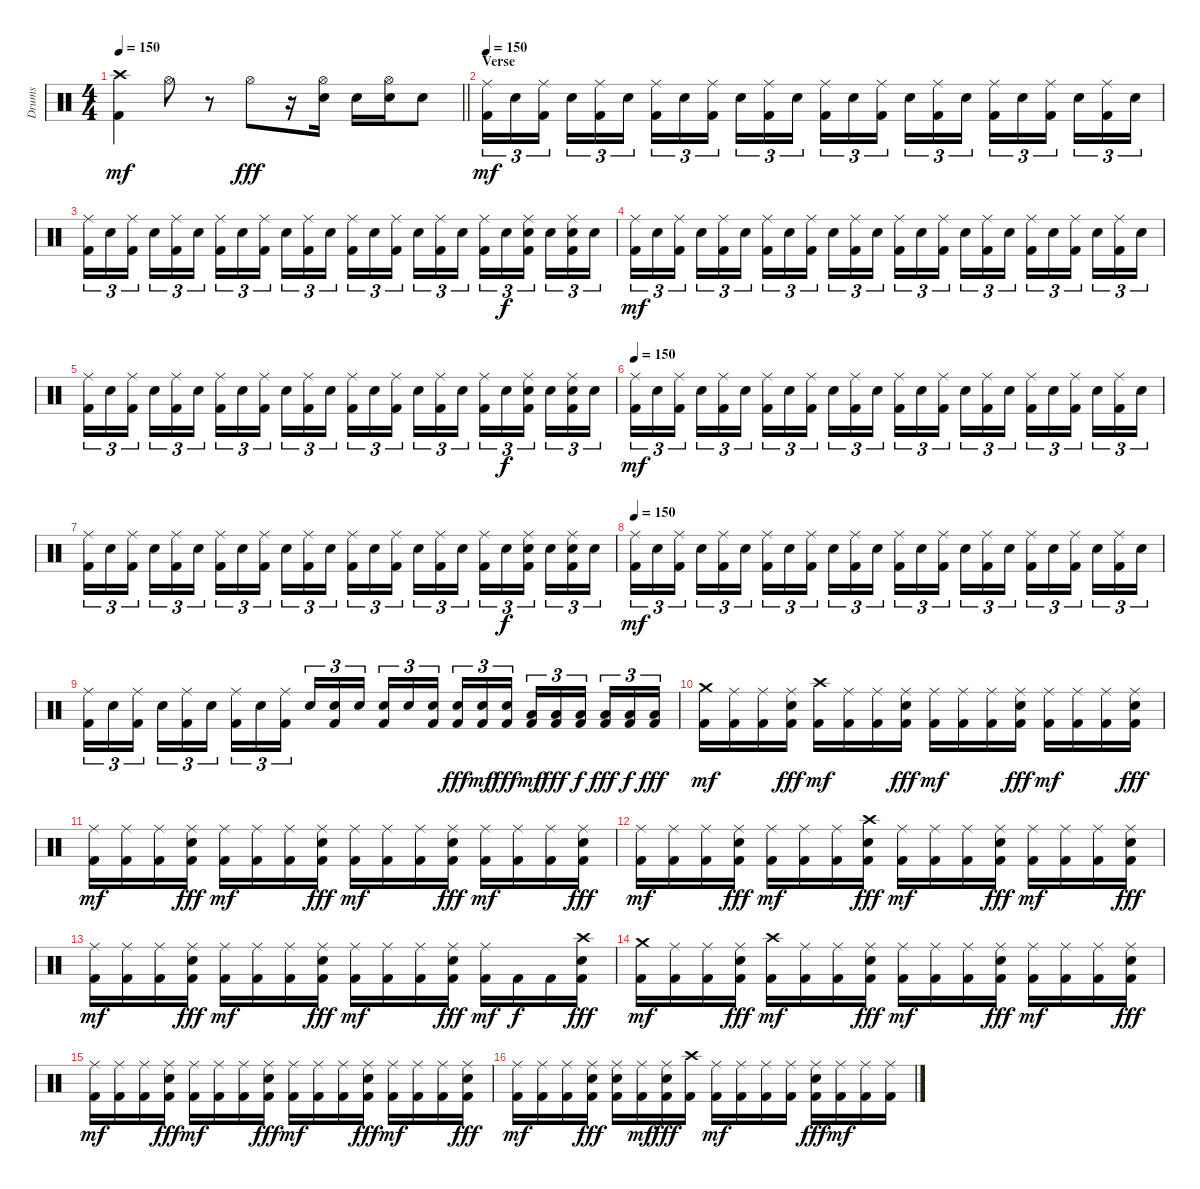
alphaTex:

\track ("Drums" "Drums") {instrument percussion}
\staff {score}
\articulation defaults
\ts (4 4)
\tempo 150
\clef neutral
\barLineRight lightlight
\ks c
("Crash high (hit)" "Kick (hit) 2").4{dy mf} "Hi-Hat (open)".8 r.8 "Hi-Hat (open)".8{dy fff} r.16 ("Hi-Hat (open)" "Snare (hit) 2").16 "Snare (hit) 2".16 ("Hi-Hat (open)" "Snare (hit) 2").16 "Electric Snare (hit)".8 |
\section ("" "Verse")
\tempo 150
("Ride (middle)" "Kick (hit) 2").16{tu (3 2) dy mf} "Snare (hit) 2".16{tu (3 2)} ("Ride (middle)" "Kick (hit) 2").16{tu (3 2) beam splitsecondary} "Snare (hit) 2".16{tu (3 2)} ("Ride (middle)" "Kick (hit) 2").16{tu (3 2)} "Snare (hit) 2".16{tu (3 2)} ("Ride (middle)" "Kick (hit) 2").16{tu (3 2)} "Snare (hit) 2".16{tu (3 2)} ("Ride (middle)" "Kick (hit) 2").16{tu (3 2) beam splitsecondary} "Snare (hit) 2".16{tu (3 2)} ("Ride (middle)" "Kick (hit) 2").16{tu (3 2)} "Snare (hit) 2".16{tu (3 2)} ("Ride (middle)" "Kick (hit) 2").16{tu (3 2)} "Snare (hit) 2".16{tu (3 2)} ("Ride (middle)" "Kick (hit) 2").16{tu (3 2) beam splitsecondary} "Snare (hit) 2".16{tu (3 2)} ("Ride (middle)" "Kick (hit) 2").16{tu (3 2)} "Snare (hit) 2".16{tu (3 2)} ("Ride (middle)" "Kick (hit) 2").16{tu (3 2)} "Snare (hit) 2".16{tu (3 2)} ("Ride (middle)" "Kick (hit) 2").16{tu (3 2) beam splitsecondary} "Snare (hit) 2".16{tu (3 2)} ("Ride (middle)" "Kick (hit) 2").16{tu (3 2)} "Snare (hit) 2".16{tu (3 2)} |
("Ride (middle)" "Kick (hit) 2").16{tu (3 2)} "Snare (hit) 2".16{tu (3 2)} ("Ride (middle)" "Kick (hit) 2").16{tu (3 2) beam splitsecondary} "Snare (hit) 2".16{tu (3 2)} ("Ride (middle)" "Kick (hit) 2").16{tu (3 2)} "Snare (hit) 2".16{tu (3 2)} ("Ride (middle)" "Kick (hit) 2").16{tu (3 2)} "Snare (hit) 2".16{tu (3 2)} ("Ride (middle)" "Kick (hit) 2").16{tu (3 2) beam splitsecondary} "Snare (hit) 2".16{tu (3 2)} ("Ride (middle)" "Kick (hit) 2").16{tu (3 2)} "Snare (hit) 2".16{tu (3 2)} ("Ride (middle)" "Kick (hit) 2").16{tu (3 2)} "Snare (hit) 2".16{tu (3 2)} ("Ride (middle)" "Kick (hit) 2").16{tu (3 2) beam splitsecondary} "Snare (hit) 2".16{tu (3 2)} ("Ride (middle)" "Kick (hit) 2").16{tu (3 2)} "Snare (hit) 2".16{tu (3 2)} ("Ride (middle)" "Kick (hit) 2").16{tu (3 2)} "Electric Snare (hit)".16{tu (3 2) dy f} ("Ride (middle)" "Electric Snare (hit)" "Kick (hit) 2").16{tu (3 2) beam splitsecondary} "Electric Snare (hit)".16{tu (3 2)} ("Ride (middle)" "Electric Snare (hit)" "Kick (hit) 2").16{tu (3 2)} "Electric Snare (hit)".16{tu (3 2)} |
("Ride (middle)" "Kick (hit) 2").16{tu (3 2) dy mf} "Snare (hit) 2".16{tu (3 2)} ("Ride (middle)" "Kick (hit) 2").16{tu (3 2) beam splitsecondary} "Snare (hit) 2".16{tu (3 2)} ("Ride (middle)" "Kick (hit) 2").16{tu (3 2)} "Snare (hit) 2".16{tu (3 2)} ("Ride (middle)" "Kick (hit) 2").16{tu (3 2)} "Snare (hit) 2".16{tu (3 2)} ("Ride (middle)" "Kick (hit) 2").16{tu (3 2) beam splitsecondary} "Snare (hit) 2".16{tu (3 2)} ("Ride (middle)" "Kick (hit) 2").16{tu (3 2)} "Snare (hit) 2".16{tu (3 2)} ("Ride (middle)" "Kick (hit) 2").16{tu (3 2)} "Snare (hit) 2".16{tu (3 2)} ("Ride (middle)" "Kick (hit) 2").16{tu (3 2) beam splitsecondary} "Snare (hit) 2".16{tu (3 2)} ("Ride (middle)" "Kick (hit) 2").16{tu (3 2)} "Snare (hit) 2".16{tu (3 2)} ("Ride (middle)" "Kick (hit) 2").16{tu (3 2)} "Snare (hit) 2".16{tu (3 2)} ("Ride (middle)" "Kick (hit) 2").16{tu (3 2) beam splitsecondary} "Snare (hit) 2".16{tu (3 2)} ("Ride (middle)" "Kick (hit) 2").16{tu (3 2)} "Snare (hit) 2".16{tu (3 2)} |
("Ride (middle)" "Kick (hit) 2").16{tu (3 2)} "Snare (hit) 2".16{tu (3 2)} ("Ride (middle)" "Kick (hit) 2").16{tu (3 2) beam splitsecondary} "Snare (hit) 2".16{tu (3 2)} ("Ride (middle)" "Kick (hit) 2").16{tu (3 2)} "Snare (hit) 2".16{tu (3 2)} ("Ride (middle)" "Kick (hit) 2").16{tu (3 2)} "Snare (hit) 2".16{tu (3 2)} ("Ride (middle)" "Kick (hit) 2").16{tu (3 2) beam splitsecondary} "Snare (hit) 2".16{tu (3 2)} ("Ride (middle)" "Kick (hit) 2").16{tu (3 2)} "Snare (hit) 2".16{tu (3 2)} ("Ride (middle)" "Kick (hit) 2").16{tu (3 2)} "Snare (hit) 2".16{tu (3 2)} ("Ride (middle)" "Kick (hit) 2").16{tu (3 2) beam splitsecondary} "Snare (hit) 2".16{tu (3 2)} ("Ride (middle)" "Kick (hit) 2").16{tu (3 2)} "Snare (hit) 2".16{tu (3 2)} ("Ride (middle)" "Kick (hit) 2").16{tu (3 2)} "Electric Snare (hit)".16{tu (3 2) dy f} ("Ride (middle)" "Electric Snare (hit)" "Kick (hit) 2").16{tu (3 2) beam splitsecondary} "Electric Snare (hit)".16{tu (3 2)} ("Ride (middle)" "Electric Snare (hit)" "Kick (hit) 2").16{tu (3 2)} "Electric Snare (hit)".16{tu (3 2)} |
\tempo 150
("Ride (middle)" "Kick (hit) 2").16{tu (3 2) dy mf} "Snare (hit) 2".16{tu (3 2)} ("Ride (middle)" "Kick (hit) 2").16{tu (3 2) beam splitsecondary} "Snare (hit) 2".16{tu (3 2)} ("Ride (middle)" "Kick (hit) 2").16{tu (3 2)} "Snare (hit) 2".16{tu (3 2)} ("Ride (middle)" "Kick (hit) 2").16{tu (3 2)} "Snare (hit) 2".16{tu (3 2)} ("Ride (middle)" "Kick (hit) 2").16{tu (3 2) beam splitsecondary} "Snare (hit) 2".16{tu (3 2)} ("Ride (middle)" "Kick (hit) 2").16{tu (3 2)} "Snare (hit) 2".16{tu (3 2)} ("Ride (middle)" "Kick (hit) 2").16{tu (3 2)} "Snare (hit) 2".16{tu (3 2)} ("Ride (middle)" "Kick (hit) 2").16{tu (3 2) beam splitsecondary} "Snare (hit) 2".16{tu (3 2)} ("Ride (middle)" "Kick (hit) 2").16{tu (3 2)} "Snare (hit) 2".16{tu (3 2)} ("Ride (middle)" "Kick (hit) 2").16{tu (3 2)} "Snare (hit) 2".16{tu (3 2)} ("Ride (middle)" "Kick (hit) 2").16{tu (3 2) beam splitsecondary} "Snare (hit) 2".16{tu (3 2)} ("Ride (middle)" "Kick (hit) 2").16{tu (3 2)} "Snare (hit) 2".16{tu (3 2)} |
("Ride (middle)" "Kick (hit) 2").16{tu (3 2)} "Snare (hit) 2".16{tu (3 2)} ("Ride (middle)" "Kick (hit) 2").16{tu (3 2) beam splitsecondary} "Snare (hit) 2".16{tu (3 2)} ("Ride (middle)" "Kick (hit) 2").16{tu (3 2)} "Snare (hit) 2".16{tu (3 2)} ("Ride (middle)" "Kick (hit) 2").16{tu (3 2)} "Snare (hit) 2".16{tu (3 2)} ("Ride (middle)" "Kick (hit) 2").16{tu (3 2) beam splitsecondary} "Snare (hit) 2".16{tu (3 2)} ("Ride (middle)" "Kick (hit) 2").16{tu (3 2)} "Snare (hit) 2".16{tu (3 2)} ("Ride (middle)" "Kick (hit) 2").16{tu (3 2)} "Snare (hit) 2".16{tu (3 2)} ("Ride (middle)" "Kick (hit) 2").16{tu (3 2) beam splitsecondary} "Snare (hit) 2".16{tu (3 2)} ("Ride (middle)" "Kick (hit) 2").16{tu (3 2)} "Snare (hit) 2".16{tu (3 2)} ("Ride (middle)" "Kick (hit) 2").16{tu (3 2)} "Electric Snare (hit)".16{tu (3 2) dy f} ("Ride (middle)" "Electric Snare (hit)" "Kick (hit) 2").16{tu (3 2) beam splitsecondary} "Electric Snare (hit)".16{tu (3 2)} ("Ride (middle)" "Electric Snare (hit)" "Kick (hit) 2").16{tu (3 2)} "Electric Snare (hit)".16{tu (3 2)} |
\tempo 150
("Ride (middle)" "Kick (hit) 2").16{tu (3 2) dy mf} "Snare (hit) 2".16{tu (3 2)} ("Ride (middle)" "Kick (hit) 2").16{tu (3 2) beam splitsecondary} "Snare (hit) 2".16{tu (3 2)} ("Ride (middle)" "Kick (hit) 2").16{tu (3 2)} "Snare (hit) 2".16{tu (3 2)} ("Ride (middle)" "Kick (hit) 2").16{tu (3 2)} "Snare (hit) 2".16{tu (3 2)} ("Ride (middle)" "Kick (hit) 2").16{tu (3 2) beam splitsecondary} "Snare (hit) 2".16{tu (3 2)} ("Ride (middle)" "Kick (hit) 2").16{tu (3 2)} "Snare (hit) 2".16{tu (3 2)} ("Ride (middle)" "Kick (hit) 2").16{tu (3 2)} "Snare (hit) 2".16{tu (3 2)} ("Ride (middle)" "Kick (hit) 2").16{tu (3 2) beam splitsecondary} "Snare (hit) 2".16{tu (3 2)} ("Ride (middle)" "Kick (hit) 2").16{tu (3 2)} "Snare (hit) 2".16{tu (3 2)} ("Ride (middle)" "Kick (hit) 2").16{tu (3 2)} "Snare (hit) 2".16{tu (3 2)} ("Ride (middle)" "Kick (hit) 2").16{tu (3 2) beam splitsecondary} "Snare (hit) 2".16{tu (3 2)} ("Ride (middle)" "Kick (hit) 2").16{tu (3 2)} "Snare (hit) 2".16{tu (3 2)} |
("Ride (middle)" "Kick (hit) 2").16{tu (3 2)} "Snare (hit) 2".16{tu (3 2)} ("Ride (middle)" "Kick (hit) 2").16{tu (3 2) beam splitsecondary} "Snare (hit) 2".16{tu (3 2)} ("Ride (middle)" "Kick (hit) 2").16{tu (3 2)} "Snare (hit) 2".16{tu (3 2)} ("Ride (middle)" "Kick (hit) 2").16{tu (3 2)} "Snare (hit) 2".16{tu (3 2)} ("Ride (middle)" "Kick (hit) 2").16{tu (3 2) beam splitsecondary} "Snare (hit) 2".16{tu (3 2)} ("Snare (hit) 2" "Kick (hit) 2").16{tu (3 2)} "Snare (hit) 2".16{tu (3 2)} ("Snare (hit) 2" "Kick (hit) 2").16{tu (3 2)} "Snare (hit) 2".16{tu (3 2)} ("Electric Snare (hit)" "Kick (hit) 2").16{tu (3 2) beam splitsecondary} ("Electric Snare (hit)" "Kick (hit) 2").16{tu (3 2) dy fff} ("Electric Snare (hit)" "Kick (hit) 2").16{tu (3 2) dy mf} ("Electric Snare (hit)" "Kick (hit) 2").16{tu (3 2) dy fff} ("Low Tom (hit)" "Kick (hit) 2").16{tu (3 2) dy mf} ("Low Tom (hit)" "Kick (hit) 2").16{tu (3 2) dy fff} ("Low Tom (hit)" "Kick (hit) 2").16{tu (3 2) dy f beam splitsecondary} ("Low Tom (hit)" "Kick (hit) 2").16{tu (3 2) dy fff} ("Low Tom (hit)" "Kick (hit) 2").16{tu (3 2) dy f} ("Low Tom (hit)" "Kick (hit) 2").16{tu (3 2) dy fff} |
("Crash medium (hit)" "Kick (hit) 2").16{dy mf} ("Ride (middle)" "Kick (hit) 2").16 ("Ride (middle)" "Kick (hit) 2").16 ("Ride (middle)" "Snare (hit) 2" "Kick (hit) 2").16{dy fff} ("Crash high (hit)" "Kick (hit) 2").16{dy mf} ("Ride (middle)" "Kick (hit) 2").16 ("Ride (middle)" "Kick (hit) 2").16 ("Ride (middle)" "Snare (hit) 2" "Kick (hit) 2").16{dy fff} ("Ride (middle)" "Kick (hit) 2").16{dy mf} ("Ride (middle)" "Kick (hit) 2").16 ("Ride (middle)" "Kick (hit) 2").16 ("Ride (middle)" "Snare (hit) 2" "Kick (hit) 2").16{dy fff} ("Ride (middle)" "Kick (hit) 2").16{dy mf} ("Ride (middle)" "Kick (hit) 2").16 ("Ride (middle)" "Kick (hit) 2").16 ("Ride (middle)" "Snare (hit) 2" "Kick (hit) 2").16{dy fff} |
("Ride (middle)" "Kick (hit) 2").16{dy mf} ("Ride (middle)" "Kick (hit) 2").16 ("Ride (middle)" "Kick (hit) 2").16 ("Ride (middle)" "Snare (hit) 2" "Kick (hit) 2").16{dy fff} ("Ride (middle)" "Kick (hit) 2").16{dy mf} ("Ride (middle)" "Kick (hit) 2").16 ("Ride (middle)" "Kick (hit) 2").16 ("Ride (middle)" "Snare (hit) 2" "Kick (hit) 2").16{dy fff} ("Ride (middle)" "Kick (hit) 2").16{dy mf} ("Ride (middle)" "Kick (hit) 2").16 ("Ride (middle)" "Kick (hit) 2").16 ("Ride (middle)" "Snare (hit) 2" "Kick (hit) 2").16{dy fff} ("Ride (middle)" "Kick (hit) 2").16{dy mf} ("Ride (middle)" "Kick (hit) 2").16 ("Ride (middle)" "Kick (hit) 2").16 ("Ride (middle)" "Snare (hit) 2" "Kick (hit) 2").16{dy fff} |
("Ride (middle)" "Kick (hit) 2").16{dy mf} ("Ride (middle)" "Kick (hit) 2").16 ("Ride (middle)" "Kick (hit) 2").16 ("Ride (middle)" "Snare (hit) 2" "Kick (hit) 2").16{dy fff} ("Ride (middle)" "Kick (hit) 2").16{dy mf} ("Ride (middle)" "Kick (hit) 2").16 ("Ride (middle)" "Kick (hit) 2").16 ("Crash high (hit)" "Snare (hit) 2" "Kick (hit) 2").16{dy fff} ("Ride (middle)" "Kick (hit) 2").16{dy mf} ("Ride (middle)" "Kick (hit) 2").16 ("Ride (middle)" "Kick (hit) 2").16 ("Ride (middle)" "Snare (hit) 2" "Kick (hit) 2").16{dy fff} ("Ride (middle)" "Kick (hit) 2").16{dy mf} ("Ride (middle)" "Kick (hit) 2").16 ("Ride (middle)" "Kick (hit) 2").16 ("Ride (middle)" "Snare (hit) 2" "Kick (hit) 2").16{dy fff} |
("Ride (middle)" "Kick (hit) 2").16{dy mf} ("Ride (middle)" "Kick (hit) 2").16 ("Ride (middle)" "Kick (hit) 2").16 ("Ride (middle)" "Snare (hit) 2" "Kick (hit) 2").16{dy fff} ("Ride (middle)" "Kick (hit) 2").16{dy mf} ("Ride (middle)" "Kick (hit) 2").16 ("Ride (middle)" "Kick (hit) 2").16 ("Ride (middle)" "Snare (hit) 2" "Kick (hit) 2").16{dy fff} ("Ride (middle)" "Kick (hit) 2").16{dy mf} ("Ride (middle)" "Kick (hit) 2").16 ("Ride (middle)" "Kick (hit) 2").16 ("Ride (middle)" "Snare (hit) 2" "Kick (hit) 2").16{dy fff} ("Ride (middle)" "Kick (hit) 2").16{dy mf} "Kick (hit) 2".16{dy f} "Kick (hit) 2".16 ("Crash high (hit)" "Snare (hit) 2" "Kick (hit) 2").16{dy fff} |
("Crash medium (hit)" "Kick (hit) 2").16{dy mf} ("Ride (middle)" "Kick (hit) 2").16 ("Ride (middle)" "Kick (hit) 2").16 ("Ride (middle)" "Snare (hit) 2" "Kick (hit) 2").16{dy fff} ("Crash high (hit)" "Kick (hit) 2").16{dy mf} ("Ride (middle)" "Kick (hit) 2").16 ("Ride (middle)" "Kick (hit) 2").16 ("Ride (middle)" "Snare (hit) 2" "Kick (hit) 2").16{dy fff} ("Ride (middle)" "Kick (hit) 2").16{dy mf} ("Ride (middle)" "Kick (hit) 2").16 ("Ride (middle)" "Kick (hit) 2").16 ("Ride (middle)" "Snare (hit) 2" "Kick (hit) 2").16{dy fff} ("Ride (middle)" "Kick (hit) 2").16{dy mf} ("Ride (middle)" "Kick (hit) 2").16 ("Ride (middle)" "Kick (hit) 2").16 ("Ride (middle)" "Snare (hit) 2" "Kick (hit) 2").16{dy fff} |
("Ride (middle)" "Kick (hit) 2").16{dy mf} ("Ride (middle)" "Kick (hit) 2").16 ("Ride (middle)" "Kick (hit) 2").16 ("Ride (middle)" "Snare (hit) 2" "Kick (hit) 2").16{dy fff} ("Ride (middle)" "Kick (hit) 2").16{dy mf} ("Ride (middle)" "Kick (hit) 2").16 ("Ride (middle)" "Kick (hit) 2").16 ("Ride (middle)" "Snare (hit) 2" "Kick (hit) 2").16{dy fff} ("Ride (middle)" "Kick (hit) 2").16{dy mf} ("Ride (middle)" "Kick (hit) 2").16 ("Ride (middle)" "Kick (hit) 2").16 ("Ride (middle)" "Snare (hit) 2" "Kick (hit) 2").16{dy fff} ("Ride (middle)" "Kick (hit) 2").16{dy mf} ("Ride (middle)" "Kick (hit) 2").16 ("Ride (middle)" "Kick (hit) 2").16 ("Ride (middle)" "Snare (hit) 2" "Kick (hit) 2").16{dy fff} |
("Ride (middle)" "Kick (hit) 2").16{dy mf} ("Ride (middle)" "Kick (hit) 2").16 ("Ride (middle)" "Kick (hit) 2").16 ("Ride (middle)" "Snare (hit) 2" "Kick (hit) 2").16{dy fff} ("Ride (middle)" "Snare (hit) 2" "Kick (hit) 2").16 ("Ride (middle)" "Kick (hit) 2").16{dy mf} ("Ride (middle)" "Snare (hit) 2" "Kick (hit) 2").16{dy fff} ("Crash high (hit)" "Kick (hit) 2").16 ("Ride (middle)" "Kick (hit) 2").16{dy mf} ("Ride (middle)" "Kick (hit) 2").16 ("Ride (middle)" "Kick (hit) 2").16 ("Ride (middle)" "Kick (hit) 2").16 ("Ride (middle)" "Snare (hit) 2" "Kick (hit) 2").16{dy fff} ("Ride (middle)" "Kick (hit) 2").16{dy mf} ("Ride (middle)" "Kick (hit) 2").16 ("Ride (middle)" "Kick (hit) 2").16
